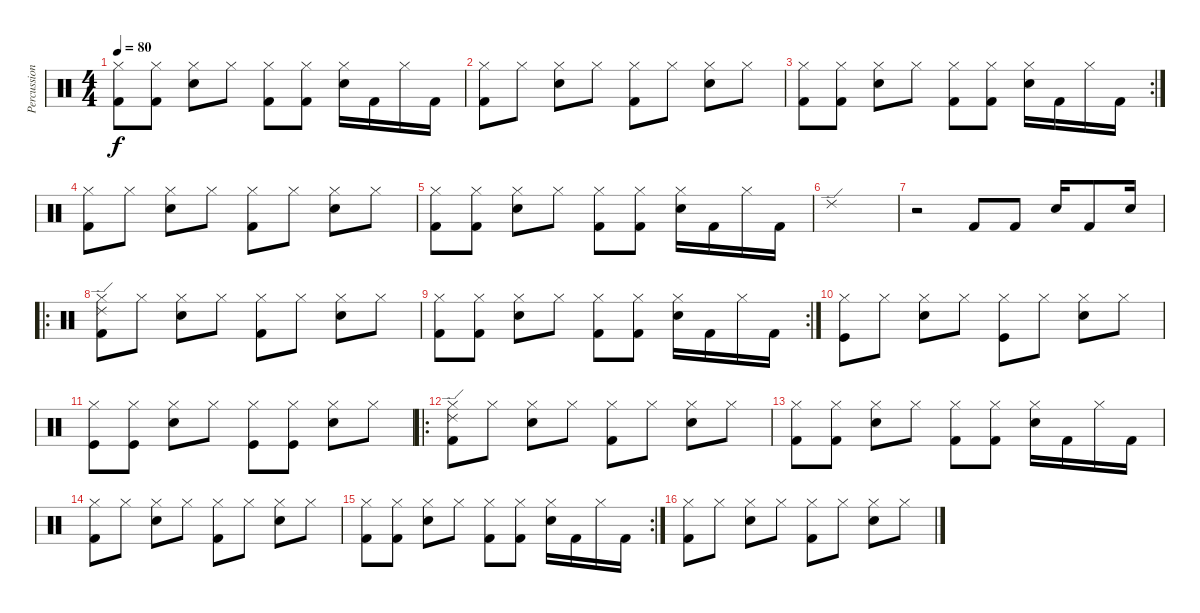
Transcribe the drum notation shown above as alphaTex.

\track ("Percussion" "Percussion") {instrument percussion}
\staff {score}
\articulation defaults
\ts (4 4)
\tempo 80
\clef neutral
\ks c
("Hi-Hat (closed)" "Kick (hit) 2").8{dy f} ("Hi-Hat (closed)" "Kick (hit) 2").8 ("Hi-Hat (closed)" "Snare (hit) 2").8 "Hi-Hat (closed)".8 ("Hi-Hat (closed)" "Kick (hit) 2").8 ("Hi-Hat (closed)" "Kick (hit) 2").8 ("Hi-Hat (closed)" "Snare (hit) 2").16 "Kick (hit) 2".16 "Hi-Hat (closed)".16 "Kick (hit) 2".16 |
("Hi-Hat (closed)" "Kick (hit) 2").8 "Hi-Hat (closed)".8 ("Hi-Hat (closed)" "Snare (hit) 2").8 "Hi-Hat (closed)".8 ("Hi-Hat (closed)" "Kick (hit) 2").8 "Hi-Hat (closed)".8 ("Hi-Hat (closed)" "Snare (hit) 2").8 "Hi-Hat (closed)".8 |
\rc 2
("Hi-Hat (closed)" "Kick (hit) 2").8 ("Hi-Hat (closed)" "Kick (hit) 2").8 ("Hi-Hat (closed)" "Snare (hit) 2").8 "Hi-Hat (closed)".8 ("Hi-Hat (closed)" "Kick (hit) 2").8 ("Hi-Hat (closed)" "Kick (hit) 2").8 ("Hi-Hat (closed)" "Snare (hit) 2").16 "Kick (hit) 2".16 "Hi-Hat (closed)".16 "Kick (hit) 2".16 |
("Hi-Hat (closed)" "Kick (hit) 2").8 "Hi-Hat (closed)".8 ("Hi-Hat (closed)" "Snare (hit) 2").8 "Hi-Hat (closed)".8 ("Hi-Hat (closed)" "Kick (hit) 2").8 "Hi-Hat (closed)".8 ("Hi-Hat (closed)" "Snare (hit) 2").8 "Hi-Hat (closed)".8 |
("Hi-Hat (closed)" "Kick (hit) 2").8 ("Hi-Hat (closed)" "Kick (hit) 2").8 ("Hi-Hat (closed)" "Snare (hit) 2").8 "Hi-Hat (closed)".8 ("Hi-Hat (closed)" "Kick (hit) 2").8 ("Hi-Hat (closed)" "Kick (hit) 2").8 ("Hi-Hat (closed)" "Snare (hit) 2").16 "Kick (hit) 2".16 "Hi-Hat (closed)".16 "Kick (hit) 2".16 |
"Ride (edge) 2".1 |
r.2 "Kick (hit) 2".8 "Kick (hit) 2".8 "Snare (hit) 2".16 "Kick (hit) 2".8 "Snare (hit) 2".16 |
\ro
("Hi-Hat (closed)" "Kick (hit) 2" "Ride (edge) 2").8 "Hi-Hat (closed)".8 ("Hi-Hat (closed)" "Snare (hit) 2").8 "Hi-Hat (closed)".8 ("Hi-Hat (closed)" "Kick (hit) 2").8 "Hi-Hat (closed)".8 ("Hi-Hat (closed)" "Snare (hit) 2").8 "Hi-Hat (closed)".8 |
\rc 2
("Hi-Hat (closed)" "Kick (hit) 2").8 ("Hi-Hat (closed)" "Kick (hit) 2").8 ("Hi-Hat (closed)" "Snare (hit) 2").8 "Hi-Hat (closed)".8 ("Hi-Hat (closed)" "Kick (hit) 2").8 ("Hi-Hat (closed)" "Kick (hit) 2").8 ("Hi-Hat (closed)" "Snare (hit) 2").16 "Kick (hit) 2".16 "Hi-Hat (closed)".16 "Kick (hit) 2".16 |
("Hi-Hat (closed)" "Kick (hit)").8 "Hi-Hat (closed)".8 ("Hi-Hat (closed)" "Snare (hit) 2").8 "Hi-Hat (closed)".8 ("Hi-Hat (closed)" "Kick (hit)").8 "Hi-Hat (closed)".8 ("Hi-Hat (closed)" "Snare (hit) 2").8 "Hi-Hat (closed)".8 |
("Hi-Hat (closed)" "Kick (hit)").8 ("Hi-Hat (closed)" "Kick (hit)").8 ("Hi-Hat (closed)" "Snare (hit) 2").8 "Hi-Hat (closed)".8 ("Hi-Hat (closed)" "Kick (hit)").8 ("Hi-Hat (closed)" "Kick (hit)").8 ("Hi-Hat (closed)" "Snare (hit) 2").8 "Hi-Hat (closed)".8 |
\ro
("Hi-Hat (closed)" "Kick (hit) 2" "Ride (edge) 2").8 "Hi-Hat (closed)".8 ("Hi-Hat (closed)" "Snare (hit) 2").8 "Hi-Hat (closed)".8 ("Hi-Hat (closed)" "Kick (hit) 2").8 "Hi-Hat (closed)".8 ("Hi-Hat (closed)" "Snare (hit) 2").8 "Hi-Hat (closed)".8 |
("Hi-Hat (closed)" "Kick (hit) 2").8 ("Hi-Hat (closed)" "Kick (hit) 2").8 ("Hi-Hat (closed)" "Snare (hit) 2").8 "Hi-Hat (closed)".8 ("Hi-Hat (closed)" "Kick (hit) 2").8 ("Hi-Hat (closed)" "Kick (hit) 2").8 ("Hi-Hat (closed)" "Snare (hit) 2").16 "Kick (hit) 2".16 "Hi-Hat (closed)".16 "Kick (hit) 2".16 |
("Hi-Hat (closed)" "Kick (hit) 2").8 "Hi-Hat (closed)".8 ("Hi-Hat (closed)" "Snare (hit) 2").8 "Hi-Hat (closed)".8 ("Hi-Hat (closed)" "Kick (hit) 2").8 "Hi-Hat (closed)".8 ("Hi-Hat (closed)" "Snare (hit) 2").8 "Hi-Hat (closed)".8 |
\rc 2
("Hi-Hat (closed)" "Kick (hit) 2").8 ("Hi-Hat (closed)" "Kick (hit) 2").8 ("Hi-Hat (closed)" "Snare (hit) 2").8 "Hi-Hat (closed)".8 ("Hi-Hat (closed)" "Kick (hit) 2").8 ("Hi-Hat (closed)" "Kick (hit) 2").8 ("Hi-Hat (closed)" "Snare (hit) 2").16 "Kick (hit) 2".16 "Hi-Hat (closed)".16 "Kick (hit) 2".16 |
("Hi-Hat (closed)" "Kick (hit) 2").8 "Hi-Hat (closed)".8 ("Hi-Hat (closed)" "Snare (hit) 2").8 "Hi-Hat (closed)".8 ("Hi-Hat (closed)" "Kick (hit) 2").8 "Hi-Hat (closed)".8 ("Hi-Hat (closed)" "Snare (hit) 2").8 "Hi-Hat (closed)".8
